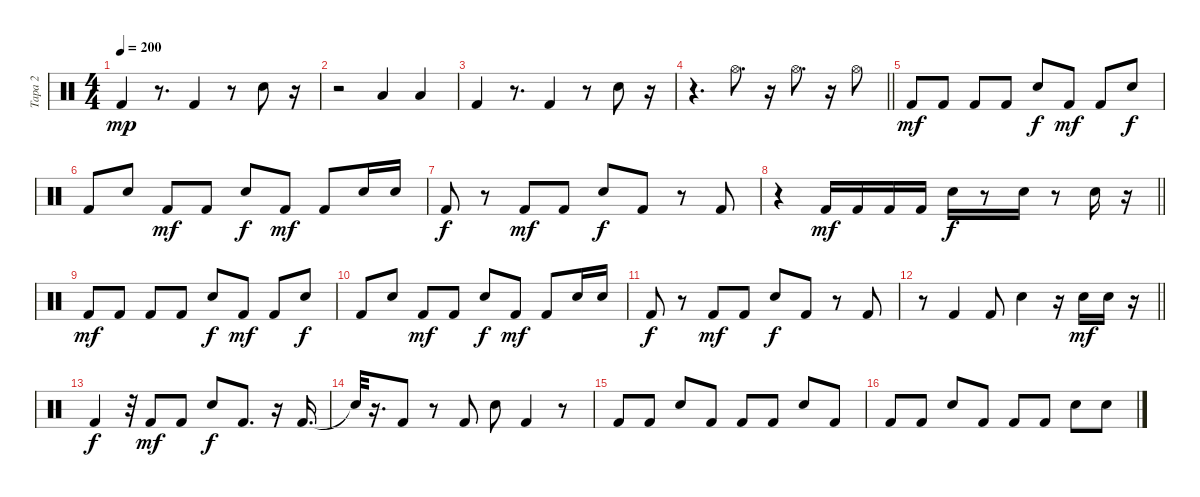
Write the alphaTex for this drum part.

\track ("Tapa 2" "Tapa 2") {instrument percussion}
\staff {score}
\articulation defaults
\ts (4 4)
\tempo 200
\clef neutral
\ks c "Kick (hit) 2".4{dy mp}
r.8{d} "Kick (hit) 2".4 r.8 "Snare (hit) 2".8 r.16 |
r.2 "Low Tom (hit)".4 "Low Tom (hit)".4 |
"Kick (hit) 2".4 r.8{d} "Kick (hit) 2".4 r.8 "Snare (hit) 2".8 r.16 |
\barLineRight lightlight
r.4{d} "Hi-Hat (open)".8{d} r.16 "Hi-Hat (open)".8{d} r.16 "Hi-Hat (open)".8 |
"Kick (hit) 2".8{dy mf} "Kick (hit) 2".8 "Kick (hit) 2".8 "Kick (hit) 2".8 "Snare (hit) 2".8{dy f} "Kick (hit) 2".8{dy mf} "Kick (hit) 2".8 "Snare (hit) 2".8{dy f} |
"Kick (hit) 2".8 "Snare (hit) 2".8 "Kick (hit) 2".8{dy mf} "Kick (hit) 2".8 "Snare (hit) 2".8{dy f} "Kick (hit) 2".8{dy mf} "Kick (hit) 2".8 "Snare (hit) 2".16 "Snare (hit) 2".16 |
"Kick (hit) 2".8{dy f} r.8 "Kick (hit) 2".8{dy mf} "Kick (hit) 2".8 "Snare (hit) 2".8{dy f} "Kick (hit) 2".8 r.8 "Kick (hit) 2".8 |
\barLineRight lightlight
r.4 "Kick (hit) 2".16{dy mf} "Kick (hit) 2".16 "Kick (hit) 2".16 "Kick (hit) 2".16 "Snare (hit) 2".16{dy f} r.8 "Snare (hit) 2".16 r.8 "Snare (hit) 2".16 r.16 |
"Kick (hit) 2".8{dy mf} "Kick (hit) 2".8 "Kick (hit) 2".8 "Kick (hit) 2".8 "Snare (hit) 2".8{dy f} "Kick (hit) 2".8{dy mf} "Kick (hit) 2".8 "Snare (hit) 2".8{dy f} |
"Kick (hit) 2".8 "Snare (hit) 2".8 "Kick (hit) 2".8{dy mf} "Kick (hit) 2".8 "Snare (hit) 2".8{dy f} "Kick (hit) 2".8{dy mf} "Kick (hit) 2".8 "Snare (hit) 2".16 "Snare (hit) 2".16 |
"Kick (hit) 2".8{dy f} r.8 "Kick (hit) 2".8{dy mf} "Kick (hit) 2".8 "Snare (hit) 2".8{dy f} "Kick (hit) 2".8 r.8 "Kick (hit) 2".8 |
\barLineRight lightlight
r.8 "Kick (hit) 2".4 "Kick (hit) 2".8 "Snare (hit) 2".4 r.16 "Snare (hit) 2".16{dy mf} "Snare (hit) 2".16 r.16 |
"Kick (hit) 2".4{dy f} r.32 "Kick (hit) 2".8{dy mf} "Kick (hit) 2".8 "Snare (hit) 2".8{dy f} "Kick (hit) 2".8{d} r.16 "Kick (hit) 2".16{d} |
"Snare (hit)"{t}.32 r.16{d} "Kick (hit) 2".8 r.8 "Kick (hit) 2".8 "Snare (hit) 2".8 "Kick (hit) 2".4 r.8 |
"Kick (hit) 2".8 "Kick (hit) 2".8 "Snare (hit) 2".8 "Kick (hit) 2".8 "Kick (hit) 2".8 "Kick (hit) 2".8 "Snare (hit) 2".8 "Kick (hit) 2".8 |
"Kick (hit) 2".8 "Kick (hit) 2".8 "Snare (hit) 2".8 "Kick (hit) 2".8 "Kick (hit) 2".8 "Kick (hit) 2".8 "Snare (hit) 2".8 "Snare (hit) 2".8
